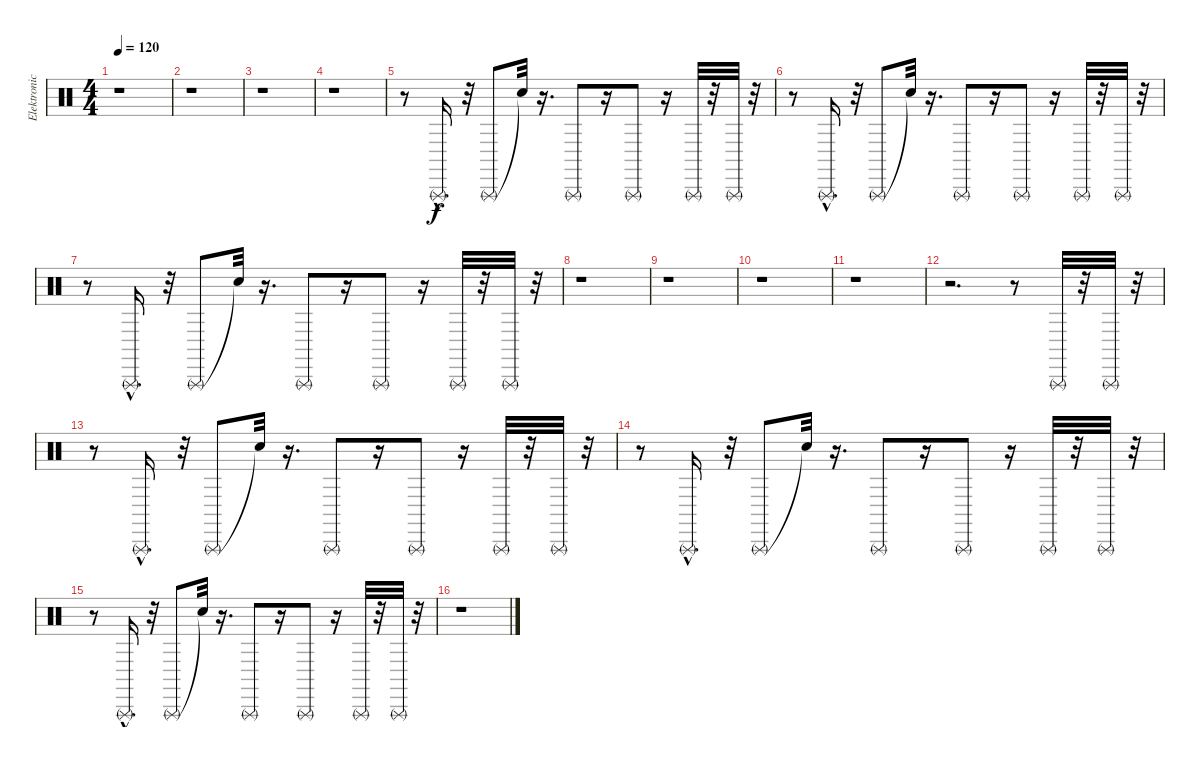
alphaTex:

\track ("Elektronické bicí 1" "Elektronic") {instrument percussion}
\staff {score}
\articulation defaults
\ts (4 4)
\tempo 120
\clef neutral
\ks c
r.1{dy f} |
r.1 |
r.1 |
r.1 |
r.8 "Triangle (rnute)"{hac}.16{d} r.32 "Triangle (rnute)".8 "Snare (hit)"{t}.32 r.16{d} "Triangle (rnute)".8 r.16 "Triangle (rnute)".8 r.16 "Triangle (rnute)".32 r.32 "Triangle (rnute)".32 r.32 |
r.8 "Triangle (rnute)"{hac}.16{d} r.32 "Triangle (rnute)".8 "Snare (hit)"{t}.32 r.16{d} "Triangle (rnute)".8 r.16 "Triangle (rnute)".8 r.16 "Triangle (rnute)".32 r.32 "Triangle (rnute)".32 r.32 |
r.8 "Triangle (rnute)"{hac}.16{d} r.32 "Triangle (rnute)".8 "Snare (hit)"{t}.32 r.16{d} "Triangle (rnute)".8 r.16 "Triangle (rnute)".8 r.16 "Triangle (rnute)".32 r.32 "Triangle (rnute)".32 r.32 |
r.1 |
r.1 |
r.1 |
r.1 |
r.2{d} r.8 "Triangle (rnute)".32 r.32 "Triangle (rnute)".32 r.32 |
r.8 "Triangle (rnute)"{hac}.16{d} r.32 "Triangle (rnute)".8 "Snare (hit)"{t}.32 r.16{d} "Triangle (rnute)".8 r.16 "Triangle (rnute)".8 r.16 "Triangle (rnute)".32 r.32 "Triangle (rnute)".32 r.32 |
r.8 "Triangle (rnute)"{hac}.16{d} r.32 "Triangle (rnute)".8 "Snare (hit)"{t}.32 r.16{d} "Triangle (rnute)".8 r.16 "Triangle (rnute)".8 r.16 "Triangle (rnute)".32 r.32 "Triangle (rnute)".32 r.32 |
r.8 "Triangle (rnute)"{hac}.16{d} r.32 "Triangle (rnute)".8 "Snare (hit)"{t}.32 r.16{d} "Triangle (rnute)".8 r.16 "Triangle (rnute)".8 r.16 "Triangle (rnute)".32 r.32 "Triangle (rnute)".32 r.32 |
r.1
